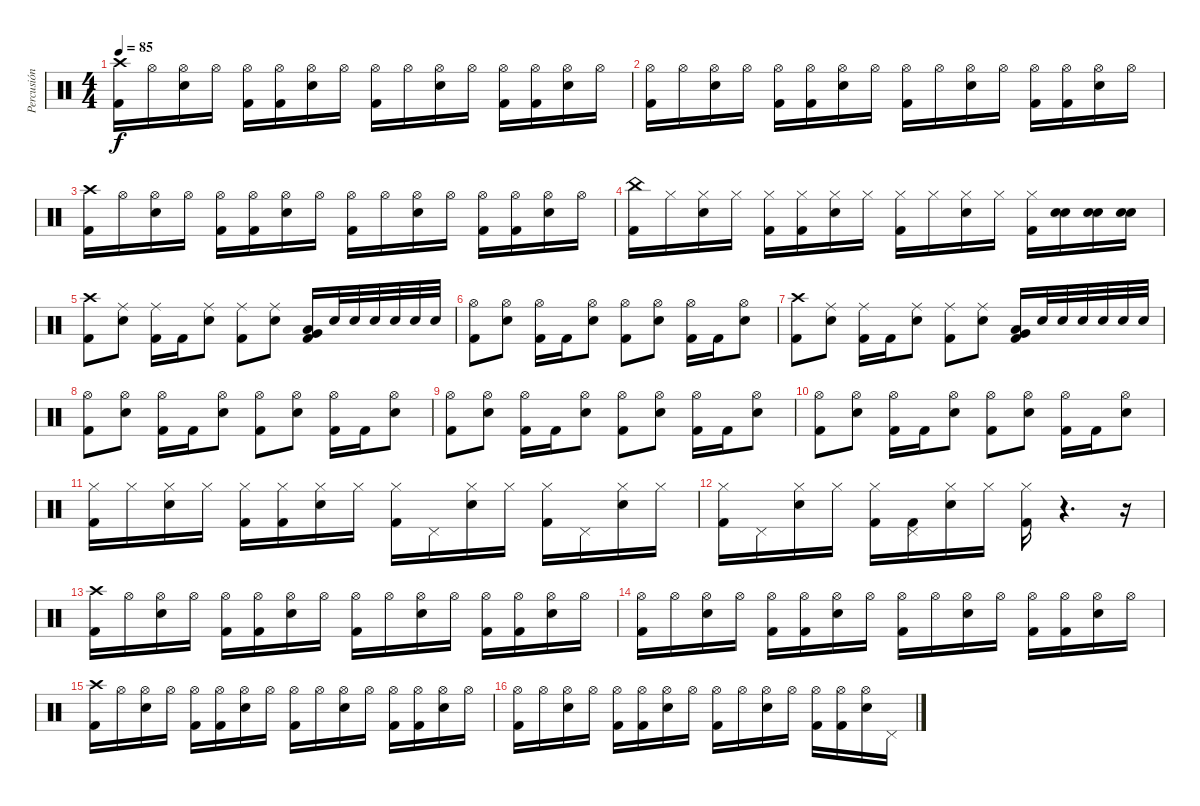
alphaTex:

\track ("Percusión" "Percusión") {instrument percussion}
\staff {score}
\articulation defaults
\ts (4 4)
\tempo 85
\clef neutral
\ks c
("Crash high (hit)" "Kick (hit) 2").16{dy f} "Hi-Hat (open)".16 ("Hi-Hat (open)" "Electric Snare (hit)").16 "Hi-Hat (open)".16 ("Hi-Hat (open)" "Kick (hit) 2").16 ("Hi-Hat (open)" "Kick (hit) 2").16 ("Hi-Hat (open)" "Electric Snare (hit)").16 "Hi-Hat (open)".16 ("Hi-Hat (open)" "Kick (hit) 2").16 "Hi-Hat (open)".16 ("Hi-Hat (open)" "Electric Snare (hit)").16 "Hi-Hat (open)".16 ("Hi-Hat (open)" "Kick (hit) 2").16 ("Hi-Hat (open)" "Kick (hit) 2").16 ("Hi-Hat (open)" "Electric Snare (hit)").16 "Hi-Hat (open)".16 |
("Hi-Hat (open)" "Kick (hit) 2").16 "Hi-Hat (open)".16 ("Hi-Hat (open)" "Electric Snare (hit)").16 "Hi-Hat (open)".16 ("Hi-Hat (open)" "Kick (hit) 2").16 ("Hi-Hat (open)" "Kick (hit) 2").16 ("Hi-Hat (open)" "Electric Snare (hit)").16 "Hi-Hat (open)".16 ("Hi-Hat (open)" "Kick (hit) 2").16 "Hi-Hat (open)".16 ("Hi-Hat (open)" "Electric Snare (hit)").16 "Hi-Hat (open)".16 ("Hi-Hat (open)" "Kick (hit) 2").16 ("Hi-Hat (open)" "Kick (hit) 2").16 ("Hi-Hat (open)" "Electric Snare (hit)").16 "Hi-Hat (open)".16 |
("Crash high (hit)" "Kick (hit) 2").16 "Hi-Hat (open)".16 ("Hi-Hat (open)" "Electric Snare (hit)").16 "Hi-Hat (open)".16 ("Hi-Hat (open)" "Kick (hit) 2").16 ("Hi-Hat (open)" "Kick (hit) 2").16 ("Hi-Hat (open)" "Electric Snare (hit)").16 "Hi-Hat (open)".16 ("Hi-Hat (open)" "Kick (hit) 2").16 "Hi-Hat (open)".16 ("Hi-Hat (open)" "Electric Snare (hit)").16 "Hi-Hat (open)".16 ("Hi-Hat (open)" "Kick (hit) 2").16 ("Hi-Hat (open)" "Kick (hit) 2").16 ("Hi-Hat (open)" "Electric Snare (hit)").16 "Hi-Hat (open)".16 |
("China (hit)" "Kick (hit) 2").16 "Hi-Hat (closed)".16 ("Hi-Hat (closed)" "Electric Snare (hit)").16 "Hi-Hat (closed)".16 ("Hi-Hat (closed)" "Kick (hit) 2").16 ("Hi-Hat (closed)" "Kick (hit) 2").16 ("Hi-Hat (closed)" "Electric Snare (hit)").16 "Hi-Hat (closed)".16 ("Hi-Hat (closed)" "Kick (hit) 2").16 "Hi-Hat (closed)".16 ("Hi-Hat (closed)" "Electric Snare (hit)").16 "Hi-Hat (closed)".16 ("Hi-Hat (closed)" "Kick (hit) 2").16 ("Electric Snare (hit)" "Snare (hit) 2").16 ("Electric Snare (hit)" "Snare (hit) 2").16 ("Electric Snare (hit)" "Snare (hit) 2").16 |
("Crash high (hit)" "Kick (hit) 2").8 ("Ride (middle)" "Electric Snare (hit)").8 ("Ride (middle)" "Kick (hit) 2").16 "Kick (hit) 2".16 ("Ride (middle)" "Electric Snare (hit)").8 ("Ride (middle)" "Kick (hit) 2").8 ("Ride (middle)" "Electric Snare (hit)").8 ("Low Floor Tom (hit)" "Very Low Tom (hit)" "Kick (hit) 2").16 "Electric Snare (hit)".32 "Electric Snare (hit)".32 "Electric Snare (hit)".32 "Electric Snare (hit)".32 "Electric Snare (hit)".32 "Electric Snare (hit)".32 |
("Hi-Hat (open)" "Kick (hit) 2").8 ("Hi-Hat (open)" "Electric Snare (hit)").8 ("Hi-Hat (open)" "Kick (hit) 2").16 "Kick (hit) 2".16 ("Hi-Hat (open)" "Electric Snare (hit)").8 ("Hi-Hat (open)" "Kick (hit) 2").8 ("Hi-Hat (open)" "Electric Snare (hit)").8 ("Hi-Hat (open)" "Kick (hit) 2").16 "Kick (hit) 2".16 ("Hi-Hat (open)" "Electric Snare (hit)").8 |
("Crash high (hit)" "Kick (hit) 2").8 ("Ride (middle)" "Electric Snare (hit)").8 ("Ride (middle)" "Kick (hit) 2").16 "Kick (hit) 2".16 ("Ride (middle)" "Electric Snare (hit)").8 ("Ride (middle)" "Kick (hit) 2").8 ("Ride (middle)" "Electric Snare (hit)").8 ("Low Floor Tom (hit)" "Very Low Tom (hit)" "Kick (hit) 2").16 "Electric Snare (hit)".32 "Electric Snare (hit)".32 "Electric Snare (hit)".32 "Electric Snare (hit)".32 "Electric Snare (hit)".32 "Electric Snare (hit)".32 |
("Hi-Hat (open)" "Kick (hit) 2").8 ("Hi-Hat (open)" "Electric Snare (hit)").8 ("Hi-Hat (open)" "Kick (hit) 2").16 "Kick (hit) 2".16 ("Hi-Hat (open)" "Electric Snare (hit)").8 ("Hi-Hat (open)" "Kick (hit) 2").8 ("Hi-Hat (open)" "Electric Snare (hit)").8 ("Hi-Hat (open)" "Kick (hit) 2").16 "Kick (hit) 2".16 ("Hi-Hat (open)" "Electric Snare (hit)").8 |
("Hi-Hat (open)" "Kick (hit) 2").8 ("Hi-Hat (open)" "Electric Snare (hit)").8 ("Hi-Hat (open)" "Kick (hit) 2").16 "Kick (hit) 2".16 ("Hi-Hat (open)" "Electric Snare (hit)").8 ("Hi-Hat (open)" "Kick (hit) 2").8 ("Hi-Hat (open)" "Electric Snare (hit)").8 ("Hi-Hat (open)" "Kick (hit) 2").16 "Kick (hit) 2".16 ("Hi-Hat (open)" "Electric Snare (hit)").8 |
("Hi-Hat (open)" "Kick (hit) 2").8 ("Hi-Hat (open)" "Electric Snare (hit)").8 ("Hi-Hat (open)" "Kick (hit) 2").16 "Kick (hit) 2".16 ("Hi-Hat (open)" "Electric Snare (hit)").8 ("Hi-Hat (open)" "Kick (hit) 2").8 ("Hi-Hat (open)" "Electric Snare (hit)").8 ("Hi-Hat (open)" "Kick (hit) 2").16 "Kick (hit) 2".16 ("Hi-Hat (open)" "Electric Snare (hit)").8 |
("Hi-Hat (closed)" "Kick (hit) 2").16 "Hi-Hat (closed)".16 ("Hi-Hat (closed)" "Electric Snare (hit)").16 "Hi-Hat (closed)".16 ("Hi-Hat (closed)" "Kick (hit) 2").16 ("Hi-Hat (closed)" "Kick (hit) 2").16 ("Hi-Hat (closed)" "Electric Snare (hit)").16 "Hi-Hat (closed)".16 ("Hi-Hat (closed)" "Kick (hit) 2").16 "Pedal Hi-Hat (hit)".16 ("Hi-Hat (closed)" "Electric Snare (hit)").16 "Hi-Hat (closed)".16 ("Hi-Hat (closed)" "Kick (hit) 2").16 "Pedal Hi-Hat (hit)".16 ("Hi-Hat (closed)" "Electric Snare (hit)").16 "Hi-Hat (closed)".16 |
("Hi-Hat (closed)" "Kick (hit) 2").16 "Pedal Hi-Hat (hit)".16 ("Hi-Hat (closed)" "Electric Snare (hit)").16 "Hi-Hat (closed)".16 ("Hi-Hat (closed)" "Kick (hit) 2").16 ("Pedal Hi-Hat (hit)" "Kick (hit) 2").16 ("Hi-Hat (closed)" "Electric Snare (hit)").16 "Hi-Hat (closed)".16 ("Hi-Hat (closed)" "Kick (hit) 2").16 r.4{d} r.16 |
("Crash high (hit)" "Kick (hit) 2").16 "Hi-Hat (open)".16 ("Hi-Hat (open)" "Electric Snare (hit)").16 "Hi-Hat (open)".16 ("Hi-Hat (open)" "Kick (hit) 2").16 ("Hi-Hat (open)" "Kick (hit) 2").16 ("Hi-Hat (open)" "Electric Snare (hit)").16 "Hi-Hat (open)".16 ("Hi-Hat (open)" "Kick (hit) 2").16 "Hi-Hat (open)".16 ("Hi-Hat (open)" "Electric Snare (hit)").16 "Hi-Hat (open)".16 ("Hi-Hat (open)" "Kick (hit) 2").16 ("Hi-Hat (open)" "Kick (hit) 2").16 ("Hi-Hat (open)" "Electric Snare (hit)").16 "Hi-Hat (open)".16 |
("Hi-Hat (open)" "Kick (hit) 2").16 "Hi-Hat (open)".16 ("Hi-Hat (open)" "Electric Snare (hit)").16 "Hi-Hat (open)".16 ("Hi-Hat (open)" "Kick (hit) 2").16 ("Hi-Hat (open)" "Kick (hit) 2").16 ("Hi-Hat (open)" "Electric Snare (hit)").16 "Hi-Hat (open)".16 ("Hi-Hat (open)" "Kick (hit) 2").16 "Hi-Hat (open)".16 ("Hi-Hat (open)" "Electric Snare (hit)").16 "Hi-Hat (open)".16 ("Hi-Hat (open)" "Kick (hit) 2").16 ("Hi-Hat (open)" "Kick (hit) 2").16 ("Hi-Hat (open)" "Electric Snare (hit)").16 "Hi-Hat (open)".16 |
("Crash high (hit)" "Kick (hit) 2").16 "Hi-Hat (open)".16 ("Hi-Hat (open)" "Electric Snare (hit)").16 "Hi-Hat (open)".16 ("Hi-Hat (open)" "Kick (hit) 2").16 ("Hi-Hat (open)" "Kick (hit) 2").16 ("Hi-Hat (open)" "Electric Snare (hit)").16 "Hi-Hat (open)".16 ("Hi-Hat (open)" "Kick (hit) 2").16 "Hi-Hat (open)".16 ("Hi-Hat (open)" "Electric Snare (hit)").16 "Hi-Hat (open)".16 ("Hi-Hat (open)" "Kick (hit) 2").16 ("Hi-Hat (open)" "Kick (hit) 2").16 ("Hi-Hat (open)" "Electric Snare (hit)").16 "Hi-Hat (open)".16 |
("Hi-Hat (open)" "Kick (hit) 2").16 "Hi-Hat (open)".16 ("Hi-Hat (open)" "Electric Snare (hit)").16 "Hi-Hat (open)".16 ("Hi-Hat (open)" "Kick (hit) 2").16 ("Hi-Hat (open)" "Kick (hit) 2").16 ("Hi-Hat (open)" "Electric Snare (hit)").16 "Hi-Hat (open)".16 ("Hi-Hat (open)" "Kick (hit) 2").16 "Hi-Hat (open)".16 ("Hi-Hat (open)" "Electric Snare (hit)").16 "Hi-Hat (open)".16 ("Hi-Hat (open)" "Kick (hit) 2").16 ("Hi-Hat (open)" "Kick (hit) 2").16 ("Hi-Hat (open)" "Electric Snare (hit)").16 "Pedal Hi-Hat (hit)".16
